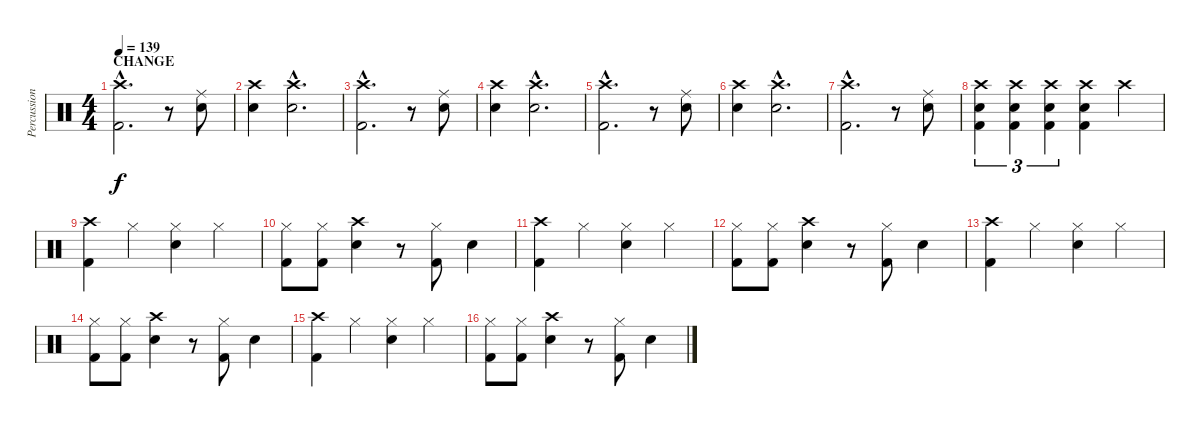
\track ("Percussion" "Percussion") {instrument percussion}
\staff {score}
\articulation defaults
\ts (4 4)
\section ("" "CHANGE")
\tempo 139
\clef neutral
\ks c
("Crash high (hit)"{hac} "Kick (hit) 2"{hac}).2{d dy f} r.8 ("Ride (middle)" "Snare (hit) 2").8 |
("Crash high (hit)" "Snare (hit) 2").4 ("Crash high (hit)"{hac} "Snare (hit) 2"{hac}).2{d} |
("Crash high (hit)"{hac} "Kick (hit) 2"{hac}).2{d} r.8 ("Ride (middle)" "Snare (hit) 2").8 |
("Crash high (hit)" "Snare (hit) 2").4 ("Crash high (hit)"{hac} "Snare (hit) 2"{hac}).2{d} |
("Crash high (hit)"{hac} "Kick (hit) 2"{hac}).2{d} r.8 ("Ride (middle)" "Snare (hit) 2").8 |
("Crash high (hit)" "Snare (hit) 2").4 ("Crash high (hit)"{hac} "Snare (hit) 2"{hac}).2{d} |
("Crash high (hit)" "Kick (hit) 2"{hac}).2{d} r.8 ("Ride (middle)" "Snare (hit) 2").8 |
("Crash high (hit)" "Snare (hit) 2" "Kick (hit) 2").4{tu (3 2)} ("Crash high (hit)" "Snare (hit) 2" "Kick (hit) 2").4{tu (3 2)} ("Crash high (hit)" "Snare (hit) 2" "Kick (hit) 2").4{tu (3 2)} ("Crash high (hit)" "Snare (hit) 2" "Kick (hit) 2").4 "Crash high (hit)".4 |
("Crash high (hit)" "Kick (hit) 2").4 "Hi-Hat (closed)".4 ("Hi-Hat (closed)" "Snare (hit) 2").4 "Hi-Hat (closed)".4 |
("Hi-Hat (closed)" "Kick (hit) 2").8 ("Hi-Hat (closed)" "Kick (hit) 2").8 ("Crash high (hit)" "Snare (hit) 2").4 r.8 ("Hi-Hat (closed)" "Kick (hit) 2").8 "Snare (hit) 2".4 |
("Crash high (hit)" "Kick (hit) 2").4 "Hi-Hat (closed)".4 ("Hi-Hat (closed)" "Snare (hit) 2").4 "Hi-Hat (closed)".4 |
("Hi-Hat (closed)" "Kick (hit) 2").8 ("Hi-Hat (closed)" "Kick (hit) 2").8 ("Crash high (hit)" "Snare (hit) 2").4 r.8 ("Hi-Hat (closed)" "Kick (hit) 2").8 "Snare (hit) 2".4 |
("Crash high (hit)" "Kick (hit) 2").4 "Hi-Hat (closed)".4 ("Hi-Hat (closed)" "Snare (hit) 2").4 "Hi-Hat (closed)".4 |
("Hi-Hat (closed)" "Kick (hit) 2").8 ("Hi-Hat (closed)" "Kick (hit) 2").8 ("Crash high (hit)" "Snare (hit) 2").4 r.8 ("Hi-Hat (closed)" "Kick (hit) 2").8 "Snare (hit) 2".4 |
("Crash high (hit)" "Kick (hit) 2").4 "Hi-Hat (closed)".4 ("Hi-Hat (closed)" "Snare (hit) 2").4 "Hi-Hat (closed)".4 |
("Hi-Hat (closed)" "Kick (hit) 2").8 ("Hi-Hat (closed)" "Kick (hit) 2").8 ("Crash high (hit)" "Snare (hit) 2").4 r.8 ("Hi-Hat (closed)" "Kick (hit) 2").8 "Snare (hit) 2".4
